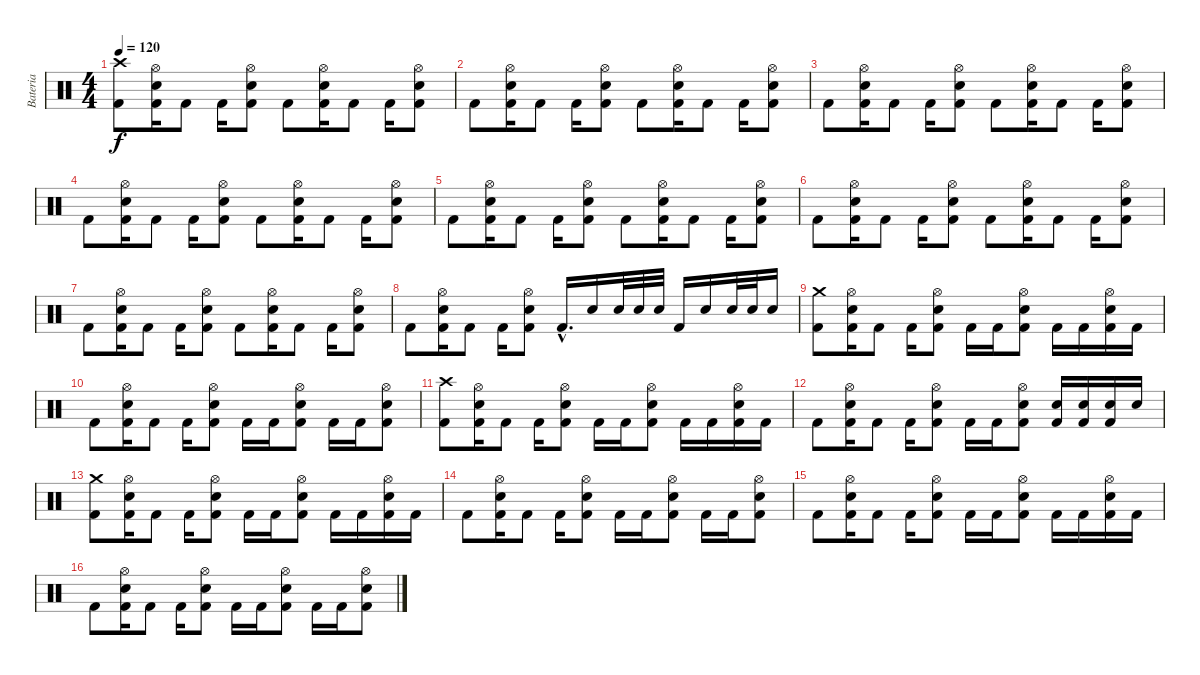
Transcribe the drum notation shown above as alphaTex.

\track ("Bateria" "Bateria") {instrument percussion}
\staff {score}
\articulation defaults
\ts (4 4)
\tempo 120
\clef neutral
\ks c
("Kick (hit) 2" "Crash high (hit)").8{dy f} ("Kick (hit) 2" "Electric Snare (hit)" "Hi-Hat (open)").16 "Kick (hit) 2".8 "Kick (hit) 2".16 ("Kick (hit) 2" "Electric Snare (hit)" "Hi-Hat (open)").8 "Kick (hit) 2".8 ("Kick (hit) 2" "Electric Snare (hit)" "Hi-Hat (open)").16 "Kick (hit) 2".8 "Kick (hit) 2".16 ("Kick (hit) 2" "Electric Snare (hit)" "Hi-Hat (open)").8 |
"Kick (hit) 2".8 ("Kick (hit) 2" "Electric Snare (hit)" "Hi-Hat (open)").16 "Kick (hit) 2".8 "Kick (hit) 2".16 ("Kick (hit) 2" "Electric Snare (hit)" "Hi-Hat (open)").8 "Kick (hit) 2".8 ("Kick (hit) 2" "Electric Snare (hit)" "Hi-Hat (open)").16 "Kick (hit) 2".8 "Kick (hit) 2".16 ("Kick (hit) 2" "Electric Snare (hit)" "Hi-Hat (open)").8 |
"Kick (hit) 2".8 ("Kick (hit) 2" "Electric Snare (hit)" "Hi-Hat (open)").16 "Kick (hit) 2".8 "Kick (hit) 2".16 ("Kick (hit) 2" "Electric Snare (hit)" "Hi-Hat (open)").8 "Kick (hit) 2".8 ("Kick (hit) 2" "Electric Snare (hit)" "Hi-Hat (open)").16 "Kick (hit) 2".8 "Kick (hit) 2".16 ("Kick (hit) 2" "Electric Snare (hit)" "Hi-Hat (open)").8 |
"Kick (hit) 2".8 ("Kick (hit) 2" "Electric Snare (hit)" "Hi-Hat (open)").16 "Kick (hit) 2".8 "Kick (hit) 2".16 ("Kick (hit) 2" "Electric Snare (hit)" "Hi-Hat (open)").8 "Kick (hit) 2".8 ("Kick (hit) 2" "Electric Snare (hit)" "Hi-Hat (open)").16 "Kick (hit) 2".8 "Kick (hit) 2".16 ("Kick (hit) 2" "Electric Snare (hit)" "Hi-Hat (open)").8 |
"Kick (hit) 2".8 ("Kick (hit) 2" "Electric Snare (hit)" "Hi-Hat (open)").16 "Kick (hit) 2".8 "Kick (hit) 2".16 ("Kick (hit) 2" "Electric Snare (hit)" "Hi-Hat (open)").8 "Kick (hit) 2".8 ("Kick (hit) 2" "Electric Snare (hit)" "Hi-Hat (open)").16 "Kick (hit) 2".8 "Kick (hit) 2".16 ("Kick (hit) 2" "Electric Snare (hit)" "Hi-Hat (open)").8 |
"Kick (hit) 2".8 ("Kick (hit) 2" "Electric Snare (hit)" "Hi-Hat (open)").16 "Kick (hit) 2".8 "Kick (hit) 2".16 ("Kick (hit) 2" "Electric Snare (hit)" "Hi-Hat (open)").8 "Kick (hit) 2".8 ("Kick (hit) 2" "Electric Snare (hit)" "Hi-Hat (open)").16 "Kick (hit) 2".8 "Kick (hit) 2".16 ("Kick (hit) 2" "Electric Snare (hit)" "Hi-Hat (open)").8 |
"Kick (hit) 2".8 ("Kick (hit) 2" "Electric Snare (hit)" "Hi-Hat (open)").16 "Kick (hit) 2".8 "Kick (hit) 2".16 ("Kick (hit) 2" "Electric Snare (hit)" "Hi-Hat (open)").8 "Kick (hit) 2".8 ("Kick (hit) 2" "Electric Snare (hit)" "Hi-Hat (open)").16 "Kick (hit) 2".8 "Kick (hit) 2".16 ("Kick (hit) 2" "Electric Snare (hit)" "Hi-Hat (open)").8 |
"Kick (hit) 2".8 ("Kick (hit) 2" "Electric Snare (hit)" "Hi-Hat (open)").16 "Kick (hit) 2".8 "Kick (hit) 2".16 ("Kick (hit) 2" "Electric Snare (hit)" "Hi-Hat (open)").8 "Kick (hit) 2"{hac}.16{d} "Electric Snare (hit)".16 "Electric Snare (hit)".32 "Electric Snare (hit)".32 "Electric Snare (hit)".32 "Kick (hit) 2".16 "Electric Snare (hit)".16 "Electric Snare (hit)".32 "Electric Snare (hit)".32 "Electric Snare (hit)".16 |
("Kick (hit) 2" "Crash medium (hit)").8 ("Kick (hit) 2" "Electric Snare (hit)" "Hi-Hat (open)").16 "Kick (hit) 2".8 "Kick (hit) 2".16 ("Kick (hit) 2" "Electric Snare (hit)" "Hi-Hat (open)").8 "Kick (hit) 2".16 "Kick (hit) 2".16 ("Kick (hit) 2" "Electric Snare (hit)" "Hi-Hat (open)").8 "Kick (hit) 2".16 "Kick (hit) 2".16 ("Kick (hit) 2" "Electric Snare (hit)" "Hi-Hat (open)").16 "Kick (hit) 2".16 |
"Kick (hit) 2".8 ("Kick (hit) 2" "Electric Snare (hit)" "Hi-Hat (open)").16 "Kick (hit) 2".8 "Kick (hit) 2".16 ("Kick (hit) 2" "Electric Snare (hit)" "Hi-Hat (open)").8 "Kick (hit) 2".16 "Kick (hit) 2".16 ("Kick (hit) 2" "Electric Snare (hit)" "Hi-Hat (open)").8 "Kick (hit) 2".16 "Kick (hit) 2".16 ("Kick (hit) 2" "Electric Snare (hit)" "Hi-Hat (open)").8 |
("Kick (hit) 2" "Crash high (hit)").8 ("Kick (hit) 2" "Electric Snare (hit)" "Hi-Hat (open)").16 "Kick (hit) 2".8 "Kick (hit) 2".16 ("Kick (hit) 2" "Electric Snare (hit)" "Hi-Hat (open)").8 "Kick (hit) 2".16 "Kick (hit) 2".16 ("Kick (hit) 2" "Electric Snare (hit)" "Hi-Hat (open)").8 "Kick (hit) 2".16 "Kick (hit) 2".16 ("Kick (hit) 2" "Electric Snare (hit)" "Hi-Hat (open)").16 "Kick (hit) 2".16 |
"Kick (hit) 2".8 ("Kick (hit) 2" "Electric Snare (hit)" "Hi-Hat (open)").16 "Kick (hit) 2".8 "Kick (hit) 2".16 ("Kick (hit) 2" "Electric Snare (hit)" "Hi-Hat (open)").8 "Kick (hit) 2".16 "Kick (hit) 2".16 ("Kick (hit) 2" "Electric Snare (hit)" "Hi-Hat (open)").8 ("Kick (hit) 2" "Electric Snare (hit)").16 ("Kick (hit) 2" "Electric Snare (hit)").16 ("Kick (hit) 2" "Electric Snare (hit)").16 "Electric Snare (hit)".16 |
("Kick (hit) 2" "Crash medium (hit)").8 ("Kick (hit) 2" "Electric Snare (hit)" "Hi-Hat (open)").16 "Kick (hit) 2".8 "Kick (hit) 2".16 ("Kick (hit) 2" "Electric Snare (hit)" "Hi-Hat (open)").8 "Kick (hit) 2".16 "Kick (hit) 2".16 ("Kick (hit) 2" "Electric Snare (hit)" "Hi-Hat (open)").8 "Kick (hit) 2".16 "Kick (hit) 2".16 ("Kick (hit) 2" "Electric Snare (hit)" "Hi-Hat (open)").16 "Kick (hit) 2".16 |
"Kick (hit) 2".8 ("Kick (hit) 2" "Electric Snare (hit)" "Hi-Hat (open)").16 "Kick (hit) 2".8 "Kick (hit) 2".16 ("Kick (hit) 2" "Electric Snare (hit)" "Hi-Hat (open)").8 "Kick (hit) 2".16 "Kick (hit) 2".16 ("Kick (hit) 2" "Electric Snare (hit)" "Hi-Hat (open)").8 "Kick (hit) 2".16 "Kick (hit) 2".16 ("Kick (hit) 2" "Electric Snare (hit)" "Hi-Hat (open)").8 |
"Kick (hit) 2".8 ("Kick (hit) 2" "Electric Snare (hit)" "Hi-Hat (open)").16 "Kick (hit) 2".8 "Kick (hit) 2".16 ("Kick (hit) 2" "Electric Snare (hit)" "Hi-Hat (open)").8 "Kick (hit) 2".16 "Kick (hit) 2".16 ("Kick (hit) 2" "Electric Snare (hit)" "Hi-Hat (open)").8 "Kick (hit) 2".16 "Kick (hit) 2".16 ("Kick (hit) 2" "Electric Snare (hit)" "Hi-Hat (open)").16 "Kick (hit) 2".16 |
"Kick (hit) 2".8 ("Kick (hit) 2" "Electric Snare (hit)" "Hi-Hat (open)").16 "Kick (hit) 2".8 "Kick (hit) 2".16 ("Kick (hit) 2" "Electric Snare (hit)" "Hi-Hat (open)").8 "Kick (hit) 2".16 "Kick (hit) 2".16 ("Kick (hit) 2" "Electric Snare (hit)" "Hi-Hat (open)").8 "Kick (hit) 2".16 "Kick (hit) 2".16 ("Kick (hit) 2" "Electric Snare (hit)" "Hi-Hat (open)").8
